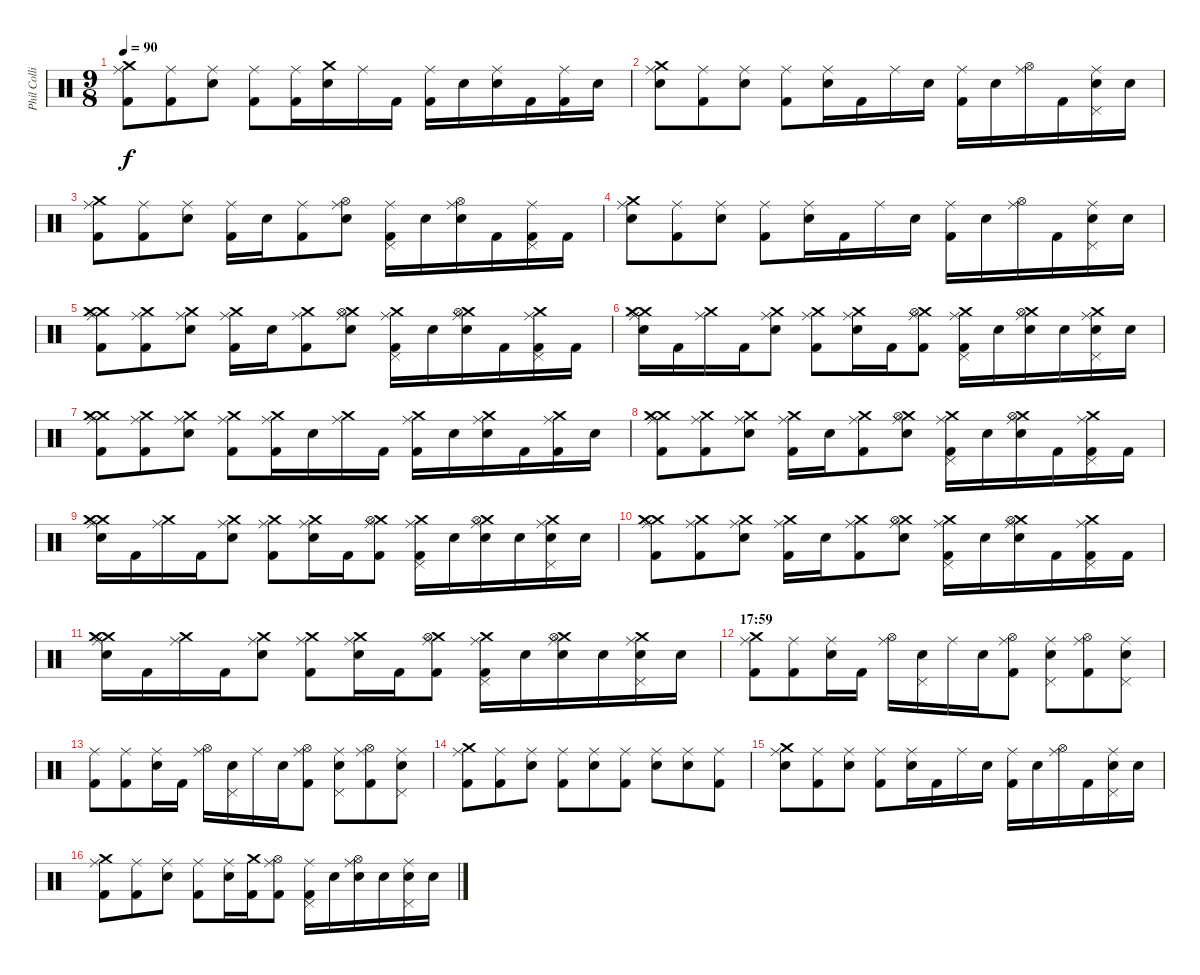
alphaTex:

\track ("Phil Collins (drums)" "Phil Colli") {instrument percussion}
\staff {score}
\articulation defaults
\ts (9 8)
\tempo 90
\clef neutral
\ks c
("Ride (middle)" "Crash medium (hit)" "Kick (hit) 2").8{dy f} ("Ride (middle)" "Kick (hit) 2").8 ("Ride (middle)" "Electric Snare (hit)").8 ("Ride (middle)" "Kick (hit) 2").8 ("Ride (middle)" "Kick (hit) 2").16 ("Crash medium (hit)" "Electric Snare (hit)").16 "Ride (middle)".16 "Kick (hit) 2".16 ("Ride (middle)" "Kick (hit) 2").16 "Electric Snare (hit)".16 ("Ride (middle)" "Electric Snare (hit)").16 "Kick (hit) 2".16 ("Ride (middle)" "Kick (hit) 2").16 "Electric Snare (hit)".16 |
("Ride (middle)" "Crash medium (hit)" "Electric Snare (hit)").8 ("Ride (middle)" "Kick (hit) 2").8 ("Ride (middle)" "Electric Snare (hit)").8 ("Ride (middle)" "Kick (hit) 2").8 ("Ride (middle)" "Electric Snare (hit)").16 "Kick (hit) 2".16 "Ride (middle)".16 "Electric Snare (hit)".16 ("Ride (middle)" "Kick (hit) 2").16 "Electric Snare (hit)".16 ("Ride (middle)" "Hi-Hat (open)").16 "Kick (hit) 2".16 ("Ride (middle)" "Pedal Hi-Hat (hit)" "Electric Snare (hit)").16 "Electric Snare (hit)".16 |
("Ride (middle)" "Crash medium (hit)" "Kick (hit) 2").8 ("Ride (middle)" "Kick (hit) 2").8 ("Ride (middle)" "Electric Snare (hit)").8 ("Ride (middle)" "Kick (hit) 2").16 "Electric Snare (hit)".16 ("Ride (middle)" "Kick (hit) 2").8 ("Ride (middle)" "Hi-Hat (open)" "Electric Snare (hit)").8 ("Ride (middle)" "Pedal Hi-Hat (hit)" "Kick (hit) 2").16 "Electric Snare (hit)".16 ("Ride (middle)" "Hi-Hat (open)" "Electric Snare (hit)").16 "Kick (hit) 2".16 ("Ride (middle)" "Pedal Hi-Hat (hit)" "Kick (hit) 2").16 "Kick (hit) 2".16 |
("Ride (middle)" "Crash medium (hit)" "Electric Snare (hit)").8 ("Ride (middle)" "Kick (hit) 2").8 ("Ride (middle)" "Electric Snare (hit)").8 ("Ride (middle)" "Kick (hit) 2").8 ("Ride (middle)" "Electric Snare (hit)").16 "Kick (hit) 2".16 "Ride (middle)".16 "Electric Snare (hit)".16 ("Ride (middle)" "Kick (hit) 2").16 "Electric Snare (hit)".16 ("Ride (middle)" "Hi-Hat (open)").16 "Kick (hit) 2".16 ("Ride (middle)" "Pedal Hi-Hat (hit)" "Electric Snare (hit)").16 "Electric Snare (hit)".16 |
("Crash medium (hit)" "Ride (middle)" "Crash medium (hit)" "Kick (hit) 2").8 ("Crash medium (hit)" "Ride (middle)" "Kick (hit) 2").8 ("Crash medium (hit)" "Ride (middle)" "Electric Snare (hit)").8 ("Crash medium (hit)" "Ride (middle)" "Kick (hit) 2").16 "Electric Snare (hit)".16 ("Crash medium (hit)" "Ride (middle)" "Kick (hit) 2").8 ("Crash medium (hit)" "Ride (middle)" "Hi-Hat (open)" "Electric Snare (hit)").8 ("Crash medium (hit)" "Ride (middle)" "Pedal Hi-Hat (hit)" "Kick (hit) 2").16 "Electric Snare (hit)".16 ("Crash medium (hit)" "Ride (middle)" "Hi-Hat (open)" "Electric Snare (hit)").16 "Kick (hit) 2".16 ("Crash medium (hit)" "Ride (middle)" "Pedal Hi-Hat (hit)" "Kick (hit) 2").16 "Kick (hit) 2".16 |
("Crash medium (hit)" "Ride (middle)" "Crash medium (hit)" "Electric Snare (hit)").16 "Kick (hit) 2".16 ("Crash medium (hit)" "Ride (middle)").16 "Kick (hit) 2".16 ("Crash medium (hit)" "Ride (middle)" "Electric Snare (hit)").8 ("Crash medium (hit)" "Ride (middle)" "Kick (hit) 2").8 ("Crash medium (hit)" "Ride (middle)" "Electric Snare (hit)").16 "Kick (hit) 2".16 ("Crash medium (hit)" "Ride (middle)" "Hi-Hat (open)" "Kick (hit) 2").8 ("Crash medium (hit)" "Ride (middle)" "Pedal Hi-Hat (hit)" "Kick (hit) 2").16 "Electric Snare (hit)".16 ("Crash medium (hit)" "Ride (middle)" "Hi-Hat (open)" "Electric Snare (hit)").16 "Electric Snare (hit)".16 ("Crash medium (hit)" "Ride (middle)" "Pedal Hi-Hat (hit)" "Electric Snare (hit)").16 "Electric Snare (hit)".16 |
("Crash medium (hit)" "Ride (middle)" "Crash medium (hit)" "Kick (hit) 2").8 ("Crash medium (hit)" "Ride (middle)" "Kick (hit) 2").8 ("Crash medium (hit)" "Ride (middle)" "Electric Snare (hit)").8 ("Crash medium (hit)" "Ride (middle)" "Kick (hit) 2").8 ("Crash medium (hit)" "Ride (middle)" "Kick (hit) 2").16 "Electric Snare (hit)".16 ("Crash medium (hit)" "Ride (middle)").16 "Kick (hit) 2".16 ("Crash medium (hit)" "Ride (middle)" "Kick (hit) 2").16 "Electric Snare (hit)".16 ("Crash medium (hit)" "Ride (middle)" "Electric Snare (hit)").16 "Kick (hit) 2".16 ("Crash medium (hit)" "Ride (middle)" "Kick (hit) 2").16 "Electric Snare (hit)".16 |
("Crash medium (hit)" "Ride (middle)" "Crash medium (hit)" "Kick (hit) 2").8 ("Crash medium (hit)" "Ride (middle)" "Kick (hit) 2").8 ("Crash medium (hit)" "Ride (middle)" "Electric Snare (hit)").8 ("Crash medium (hit)" "Ride (middle)" "Kick (hit) 2").16 "Electric Snare (hit)".16 ("Crash medium (hit)" "Ride (middle)" "Kick (hit) 2").8 ("Crash medium (hit)" "Ride (middle)" "Hi-Hat (open)" "Electric Snare (hit)").8 ("Crash medium (hit)" "Ride (middle)" "Pedal Hi-Hat (hit)" "Kick (hit) 2").16 "Electric Snare (hit)".16 ("Crash medium (hit)" "Ride (middle)" "Hi-Hat (open)" "Electric Snare (hit)").16 "Kick (hit) 2".16 ("Crash medium (hit)" "Ride (middle)" "Pedal Hi-Hat (hit)" "Kick (hit) 2").16 "Kick (hit) 2".16 |
("Crash medium (hit)" "Ride (middle)" "Crash medium (hit)" "Electric Snare (hit)").16 "Kick (hit) 2".16 ("Crash medium (hit)" "Ride (middle)").16 "Kick (hit) 2".16 ("Crash medium (hit)" "Ride (middle)" "Electric Snare (hit)").8 ("Crash medium (hit)" "Ride (middle)" "Kick (hit) 2").8 ("Crash medium (hit)" "Ride (middle)" "Electric Snare (hit)").16 "Kick (hit) 2".16 ("Crash medium (hit)" "Ride (middle)" "Hi-Hat (open)" "Kick (hit) 2").8 ("Crash medium (hit)" "Ride (middle)" "Pedal Hi-Hat (hit)" "Kick (hit) 2").16 "Electric Snare (hit)".16 ("Crash medium (hit)" "Ride (middle)" "Hi-Hat (open)" "Electric Snare (hit)").16 "Electric Snare (hit)".16 ("Crash medium (hit)" "Ride (middle)" "Pedal Hi-Hat (hit)" "Electric Snare (hit)").16 "Electric Snare (hit)".16 |
("Crash medium (hit)" "Ride (middle)" "Crash medium (hit)" "Kick (hit) 2").8 ("Crash medium (hit)" "Ride (middle)" "Kick (hit) 2").8 ("Crash medium (hit)" "Ride (middle)" "Electric Snare (hit)").8 ("Crash medium (hit)" "Ride (middle)" "Kick (hit) 2").16 "Electric Snare (hit)".16 ("Crash medium (hit)" "Ride (middle)" "Kick (hit) 2").8 ("Crash medium (hit)" "Ride (middle)" "Hi-Hat (open)" "Electric Snare (hit)").8 ("Crash medium (hit)" "Ride (middle)" "Pedal Hi-Hat (hit)" "Kick (hit) 2").16 "Electric Snare (hit)".16 ("Crash medium (hit)" "Ride (middle)" "Hi-Hat (open)" "Electric Snare (hit)").16 "Kick (hit) 2".16 ("Crash medium (hit)" "Ride (middle)" "Pedal Hi-Hat (hit)" "Kick (hit) 2").16 "Kick (hit) 2".16 |
("Crash medium (hit)" "Ride (middle)" "Crash medium (hit)" "Electric Snare (hit)").16 "Kick (hit) 2".16 ("Crash medium (hit)" "Ride (middle)").16 "Kick (hit) 2".16 ("Crash medium (hit)" "Ride (middle)" "Electric Snare (hit)").8 ("Crash medium (hit)" "Ride (middle)" "Kick (hit) 2").8 ("Crash medium (hit)" "Ride (middle)" "Electric Snare (hit)").16 "Kick (hit) 2".16 ("Crash medium (hit)" "Ride (middle)" "Hi-Hat (open)" "Kick (hit) 2").8 ("Crash medium (hit)" "Ride (middle)" "Pedal Hi-Hat (hit)" "Kick (hit) 2").16 "Electric Snare (hit)".16 ("Crash medium (hit)" "Ride (middle)" "Hi-Hat (open)" "Electric Snare (hit)").16 "Electric Snare (hit)".16 ("Crash medium (hit)" "Ride (middle)" "Pedal Hi-Hat (hit)" "Electric Snare (hit)").16 "Electric Snare (hit)".16 |
\section ("" "17:59")
("Ride (middle)" "Crash medium (hit)" "Kick (hit) 2").8 ("Ride (middle)" "Kick (hit) 2").8 ("Ride (middle)" "Electric Snare (hit)").16 "Kick (hit) 2".16 ("Ride (middle)" "Hi-Hat (open)").16 ("Pedal Hi-Hat (hit)" "Electric Snare (hit)").16 "Ride (middle)".16 "Electric Snare (hit)".16 ("Ride (middle)" "Hi-Hat (open)" "Kick (hit) 2").8 ("Ride (middle)" "Pedal Hi-Hat (hit)" "Electric Snare (hit)").8 ("Ride (middle)" "Hi-Hat (open)" "Kick (hit) 2").8 ("Ride (middle)" "Pedal Hi-Hat (hit)" "Electric Snare (hit)").8 |
("Ride (middle)" "Kick (hit) 2").8 ("Ride (middle)" "Kick (hit) 2").8 ("Ride (middle)" "Electric Snare (hit)").16 "Kick (hit) 2".16 ("Ride (middle)" "Hi-Hat (open)").16 ("Pedal Hi-Hat (hit)" "Electric Snare (hit)").16 "Ride (middle)".16 "Electric Snare (hit)".16 ("Ride (middle)" "Hi-Hat (open)" "Kick (hit) 2").8 ("Ride (middle)" "Pedal Hi-Hat (hit)" "Electric Snare (hit)").8 ("Ride (middle)" "Hi-Hat (open)" "Kick (hit) 2").8 ("Ride (middle)" "Pedal Hi-Hat (hit)" "Electric Snare (hit)").8 |
("Ride (middle)" "Crash medium (hit)" "Kick (hit) 2").8 ("Ride (middle)" "Kick (hit) 2").8 ("Ride (middle)" "Electric Snare (hit)").8 ("Ride (middle)" "Kick (hit) 2").8 ("Ride (middle)" "Electric Snare (hit)").8 ("Ride (middle)" "Kick (hit) 2").8 ("Ride (middle)" "Electric Snare (hit)").8 ("Ride (middle)" "Electric Snare (hit)").8 ("Ride (middle)" "Kick (hit) 2").8 |
("Ride (middle)" "Crash medium (hit)" "Electric Snare (hit)").8 ("Ride (middle)" "Kick (hit) 2").8 ("Ride (middle)" "Electric Snare (hit)").8 ("Ride (middle)" "Kick (hit) 2").8 ("Ride (middle)" "Electric Snare (hit)").16 "Kick (hit) 2".16 "Ride (middle)".16 "Electric Snare (hit)".16 ("Ride (middle)" "Kick (hit) 2").16 "Electric Snare (hit)".16 ("Ride (middle)" "Hi-Hat (open)").16 "Kick (hit) 2".16 ("Ride (middle)" "Pedal Hi-Hat (hit)" "Electric Snare (hit)").16 "Electric Snare (hit)".16 |
("Ride (middle)" "Crash medium (hit)" "Kick (hit) 2").8 ("Ride (middle)" "Kick (hit) 2").8 ("Ride (middle)" "Electric Snare (hit)").8 ("Ride (middle)" "Kick (hit) 2").8 ("Ride (middle)" "Electric Snare (hit)").16 ("Crash medium (hit)" "Kick (hit) 2").16 ("Ride (middle)" "Hi-Hat (open)" "Kick (hit) 2").8 ("Ride (middle)" "Pedal Hi-Hat (hit)" "Kick (hit) 2").16 "Electric Snare (hit)".16 ("Ride (middle)" "Hi-Hat (open)" "Electric Snare (hit)").16 "Electric Snare (hit)".16 ("Ride (middle)" "Pedal Hi-Hat (hit)" "Electric Snare (hit)").16 "Electric Snare (hit)".16
